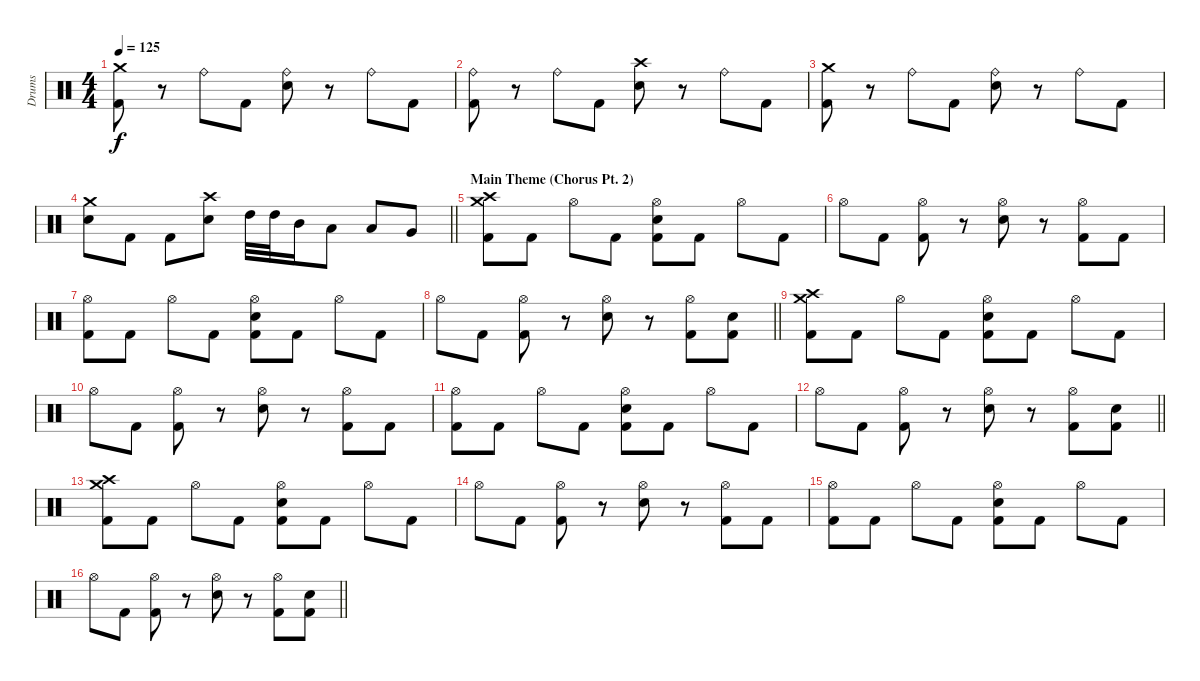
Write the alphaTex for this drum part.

\track ("Drums " "Drums ") {instrument percussion}
\staff {score}
\articulation defaults
\ts (4 4)
\tempo 125
\clef neutral
\ks c
("Crash medium (hit)" "Kick (hit) 2").8{dy f} r.8 "Ride (bell)".8 "Kick (hit) 2".8 ("Ride (bell)" "Electric Snare (hit)").8 r.8 "Ride (bell)".8 "Kick (hit) 2".8 |
("Ride (bell)" "Kick (hit) 2").8 r.8 "Ride (bell)".8 "Kick (hit) 2".8 ("Crash high (hit)" "Electric Snare (hit)").8 r.8 "Ride (bell)".8 "Kick (hit) 2".8 |
("Crash medium (hit)" "Kick (hit) 2").8 r.8 "Ride (bell)".8 "Kick (hit) 2".8 ("Ride (bell)" "Electric Snare (hit)").8 r.8 "Ride (bell)".8 "Kick (hit) 2".8 |
\barLineRight lightlight
("Crash medium (hit)" "Electric Snare (hit)").8 "Kick (hit) 2".8 "Kick (hit) 2".8 ("Crash high (hit)" "Electric Snare (hit)").8 "High Tom (hit)".32 "High Tom (hit)".32 "Mid Tom (hit)".16 "Low Tom (hit)".8 "Low Tom (hit)".8 "Very Low Tom (hit)".8 |
\section ("" "Main Theme (Chorus Pt. 2) ")
("Crash medium (hit)" "Crash high (hit)" "Kick (hit) 2").8 "Kick (hit) 2".8 "Hi-Hat (open)".8 "Kick (hit) 2".8 ("Hi-Hat (open)" "Electric Snare (hit)" "Kick (hit) 2").8 "Kick (hit) 2".8 "Hi-Hat (open)".8 "Kick (hit) 2".8 |
"Hi-Hat (open)".8 "Kick (hit) 2".8 ("Hi-Hat (open)" "Kick (hit) 2").8 r.8 ("Hi-Hat (open)" "Electric Snare (hit)").8 r.8 ("Hi-Hat (open)" "Kick (hit) 2").8 "Kick (hit) 2".8 |
("Hi-Hat (open)" "Kick (hit) 2").8 "Kick (hit) 2".8 "Hi-Hat (open)".8 "Kick (hit) 2".8 ("Hi-Hat (open)" "Electric Snare (hit)" "Kick (hit) 2").8 "Kick (hit) 2".8 "Hi-Hat (open)".8 "Kick (hit) 2".8 |
\barLineRight lightlight "Hi-Hat (open)".8 "Kick (hit) 2".8
("Hi-Hat (open)" "Kick (hit) 2").8 r.8 ("Hi-Hat (open)" "Electric Snare (hit)").8 r.8 ("Hi-Hat (open)" "Kick (hit) 2").8 ("Electric Snare (hit)" "Kick (hit) 2").8 |
("Crash medium (hit)" "Crash high (hit)" "Kick (hit) 2").8 "Kick (hit) 2".8 "Hi-Hat (open)".8 "Kick (hit) 2".8 ("Hi-Hat (open)" "Electric Snare (hit)" "Kick (hit) 2").8 "Kick (hit) 2".8 "Hi-Hat (open)".8 "Kick (hit) 2".8 |
"Hi-Hat (open)".8 "Kick (hit) 2".8 ("Hi-Hat (open)" "Kick (hit) 2").8 r.8 ("Hi-Hat (open)" "Electric Snare (hit)").8 r.8 ("Hi-Hat (open)" "Kick (hit) 2").8 "Kick (hit) 2".8 |
("Hi-Hat (open)" "Kick (hit) 2").8 "Kick (hit) 2".8 "Hi-Hat (open)".8 "Kick (hit) 2".8 ("Hi-Hat (open)" "Electric Snare (hit)" "Kick (hit) 2").8 "Kick (hit) 2".8 "Hi-Hat (open)".8 "Kick (hit) 2".8 |
\barLineRight lightlight "Hi-Hat (open)".8 "Kick (hit) 2".8
("Hi-Hat (open)" "Kick (hit) 2").8 r.8 ("Hi-Hat (open)" "Electric Snare (hit)").8 r.8 ("Hi-Hat (open)" "Kick (hit) 2").8 ("Electric Snare (hit)" "Kick (hit) 2").8 |
("Crash medium (hit)" "Crash high (hit)" "Kick (hit) 2").8 "Kick (hit) 2".8 "Hi-Hat (open)".8 "Kick (hit) 2".8 ("Hi-Hat (open)" "Electric Snare (hit)" "Kick (hit) 2").8 "Kick (hit) 2".8 "Hi-Hat (open)".8 "Kick (hit) 2".8 |
"Hi-Hat (open)".8 "Kick (hit) 2".8 ("Hi-Hat (open)" "Kick (hit) 2").8 r.8 ("Hi-Hat (open)" "Electric Snare (hit)").8 r.8 ("Hi-Hat (open)" "Kick (hit) 2").8 "Kick (hit) 2".8 |
("Hi-Hat (open)" "Kick (hit) 2").8 "Kick (hit) 2".8 "Hi-Hat (open)".8 "Kick (hit) 2".8 ("Hi-Hat (open)" "Electric Snare (hit)" "Kick (hit) 2").8 "Kick (hit) 2".8 "Hi-Hat (open)".8 "Kick (hit) 2".8 |
\barLineRight lightlight "Hi-Hat (open)".8 "Kick (hit) 2".8
("Hi-Hat (open)" "Kick (hit) 2").8 r.8 ("Hi-Hat (open)" "Electric Snare (hit)").8 r.8 ("Hi-Hat (open)" "Kick (hit) 2").8 ("Electric Snare (hit)" "Kick (hit) 2").8
